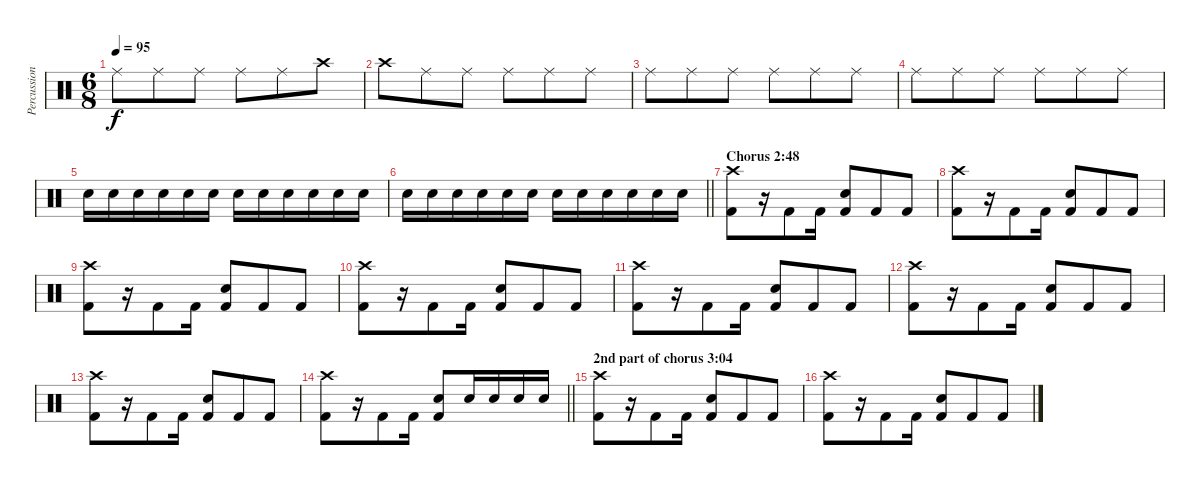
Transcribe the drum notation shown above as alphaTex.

\track ("Percussion" "Percussion") {instrument percussion}
\staff {score}
\articulation defaults
\ts (6 8)
\tempo 95
\clef neutral
\ks c "Ride (middle)".8{dy f} "Ride (middle)".8 "Ride (middle)".8 "Ride (middle)".8 "Ride (middle)".8 "Crash high (hit)".8
|
"Crash high (hit)".8 "Ride (middle)".8 "Ride (middle)".8 "Ride (middle)".8 "Ride (middle)".8 "Ride (middle)".8 |
"Ride (middle)".8 "Ride (middle)".8 "Ride (middle)".8 "Ride (middle)".8 "Ride (middle)".8 "Ride (middle)".8 |
"Ride (middle)".8 "Ride (middle)".8 "Ride (middle)".8 "Ride (middle)".8 "Ride (middle)".8 "Ride (middle)".8 |
"Snare (hit) 2".16 "Snare (hit) 2".16 "Snare (hit) 2".16 "Snare (hit) 2".16 "Snare (hit) 2".16 "Snare (hit) 2".16 "Snare (hit) 2".16 "Snare (hit) 2".16 "Snare (hit) 2".16 "Snare (hit) 2".16 "Snare (hit) 2".16 "Snare (hit) 2".16 |
\barLineRight lightlight "Snare (hit) 2".16 "Snare (hit) 2".16 "Snare (hit) 2".16 "Snare (hit) 2".16 "Snare (hit) 2".16 "Snare (hit) 2".16 "Snare (hit) 2".16 "Snare (hit) 2".16 "Snare (hit) 2".16 "Snare (hit) 2".16 "Snare (hit) 2".16 "Snare (hit) 2".16
|
\section ("" "Chorus 2:48")
("Crash high (hit)" "Kick (hit) 2").8 r.16 "Kick (hit) 2".8 "Kick (hit) 2".16 ("Snare (hit) 2" "Kick (hit) 2").8 "Kick (hit) 2".8 "Kick (hit) 2".8 |
("Crash high (hit)" "Kick (hit) 2").8 r.16 "Kick (hit) 2".8 "Kick (hit) 2".16 ("Snare (hit) 2" "Kick (hit) 2").8 "Kick (hit) 2".8 "Kick (hit) 2".8 |
("Crash high (hit)" "Kick (hit) 2").8 r.16 "Kick (hit) 2".8 "Kick (hit) 2".16 ("Snare (hit) 2" "Kick (hit) 2").8 "Kick (hit) 2".8 "Kick (hit) 2".8 |
("Crash high (hit)" "Kick (hit) 2").8 r.16 "Kick (hit) 2".8 "Kick (hit) 2".16 ("Snare (hit) 2" "Kick (hit) 2").8 "Kick (hit) 2".8 "Kick (hit) 2".8 |
("Crash high (hit)" "Kick (hit) 2").8 r.16 "Kick (hit) 2".8 "Kick (hit) 2".16 ("Snare (hit) 2" "Kick (hit) 2").8 "Kick (hit) 2".8 "Kick (hit) 2".8 |
("Crash high (hit)" "Kick (hit) 2").8 r.16 "Kick (hit) 2".8 "Kick (hit) 2".16 ("Snare (hit) 2" "Kick (hit) 2").8 "Kick (hit) 2".8 "Kick (hit) 2".8 |
("Crash high (hit)" "Kick (hit) 2").8 r.16 "Kick (hit) 2".8 "Kick (hit) 2".16 ("Snare (hit) 2" "Kick (hit) 2").8 "Kick (hit) 2".8 "Kick (hit) 2".8 |
\barLineRight lightlight
("Crash high (hit)" "Kick (hit) 2").8 r.16 "Kick (hit) 2".8 "Kick (hit) 2".16 ("Snare (hit) 2" "Kick (hit) 2").8 "Snare (hit) 2".16 "Snare (hit) 2".16 "Snare (hit) 2".16 "Snare (hit) 2".16 |
\section ("" "2nd part of chorus 3:04")
("Crash high (hit)" "Kick (hit) 2").8 r.16 "Kick (hit) 2".8 "Kick (hit) 2".16 ("Snare (hit) 2" "Kick (hit) 2").8 "Kick (hit) 2".8 "Kick (hit) 2".8 |
("Crash high (hit)" "Kick (hit) 2").8 r.16 "Kick (hit) 2".8 "Kick (hit) 2".16 ("Snare (hit) 2" "Kick (hit) 2").8 "Kick (hit) 2".8 "Kick (hit) 2".8
